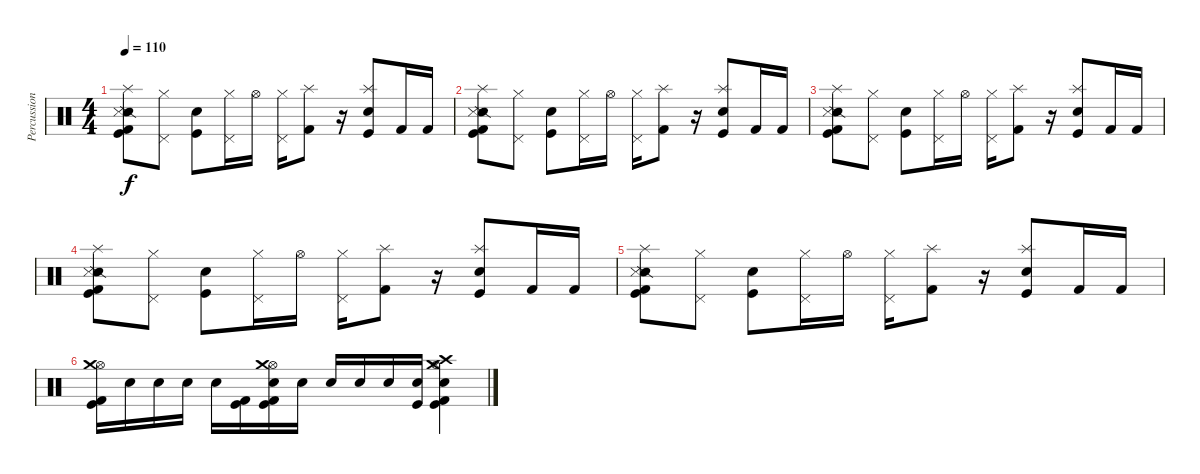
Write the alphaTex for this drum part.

\track ("Percussion" "Percussion") {instrument percussion}
\staff {score}
\articulation defaults
\ts (4 4)
\tempo 110
\clef neutral
\ks c
("Kick (hit)" "Kick (hit) 2" "Snare (side stick) 2" "Metronome (hit)" "Splash (hit)").8{dy f} ("Pedal Hi-Hat (hit)" "Hi-Hat (closed)").8 ("Snare (hit) 2" "Kick (hit)").8 ("Pedal Hi-Hat (hit)" "Hi-Hat (closed)").16 "Hi-Hat (open)".16 ("Pedal Hi-Hat (hit)" "Hi-Hat (closed)").16 ("Kick (hit) 2" "Splash (hit)").8 r.16 ("Snare (hit) 2" "Kick (hit)" "Splash (hit)").8 "Kick (hit) 2".16 "Kick (hit) 2".16 |
("Kick (hit)" "Kick (hit) 2" "Snare (side stick) 2" "Metronome (hit)" "Splash (hit)").8 ("Pedal Hi-Hat (hit)" "Hi-Hat (closed)").8 ("Snare (hit) 2" "Kick (hit)").8 ("Pedal Hi-Hat (hit)" "Hi-Hat (closed)").16 "Hi-Hat (open)".16 ("Pedal Hi-Hat (hit)" "Hi-Hat (closed)").16 ("Kick (hit) 2" "Splash (hit)").8 r.16 ("Snare (hit) 2" "Kick (hit)" "Splash (hit)").8 "Kick (hit) 2".16 "Kick (hit) 2".16 |
("Kick (hit)" "Kick (hit) 2" "Snare (side stick) 2" "Metronome (hit)" "Splash (hit)").8 ("Pedal Hi-Hat (hit)" "Hi-Hat (closed)").8 ("Snare (hit) 2" "Kick (hit)").8 ("Pedal Hi-Hat (hit)" "Hi-Hat (closed)").16 "Hi-Hat (open)".16 ("Pedal Hi-Hat (hit)" "Hi-Hat (closed)").16 ("Kick (hit) 2" "Splash (hit)").8 r.16 ("Snare (hit) 2" "Kick (hit)" "Splash (hit)").8 "Kick (hit) 2".16 "Kick (hit) 2".16 |
("Kick (hit)" "Kick (hit) 2" "Snare (side stick) 2" "Metronome (hit)" "Splash (hit)").8 ("Pedal Hi-Hat (hit)" "Hi-Hat (closed)").8 ("Snare (hit) 2" "Kick (hit)").8 ("Pedal Hi-Hat (hit)" "Hi-Hat (closed)").16 "Hi-Hat (open)".16 ("Pedal Hi-Hat (hit)" "Hi-Hat (closed)").16 ("Kick (hit) 2" "Splash (hit)").8 r.16 ("Snare (hit) 2" "Kick (hit)" "Splash (hit)").8 "Kick (hit) 2".16 "Kick (hit) 2".16 |
("Kick (hit)" "Kick (hit) 2" "Snare (side stick) 2" "Metronome (hit)" "Splash (hit)").8 ("Pedal Hi-Hat (hit)" "Hi-Hat (closed)").8 ("Snare (hit) 2" "Kick (hit)").8 ("Pedal Hi-Hat (hit)" "Hi-Hat (closed)").16 "Hi-Hat (open)".16 ("Pedal Hi-Hat (hit)" "Hi-Hat (closed)").16 ("Kick (hit) 2" "Splash (hit)").8 r.16 ("Snare (hit) 2" "Kick (hit)" "Splash (hit)").8 "Kick (hit) 2".16 "Kick (hit) 2".16 |
("Hi-Hat (open)" "Kick (hit) 2" "Kick (hit)" "Crash medium (hit)").16 "Snare (hit) 2".16 "Electric Snare (hit)".16 "Electric Snare (hit)".16 "Snare (hit) 2".16 ("Kick (hit) 2" "Kick (hit)").16 ("Kick (hit) 2" "Snare (hit) 2" "Kick (hit)" "Hi-Hat (open)" "Crash medium (hit)").16 "Snare (hit) 2".16 "Electric Snare (hit)".16 "Electric Snare (hit)".16 "Snare (hit) 2".16 ("Snare (hit) 2" "Kick (hit)").16 ("Crash high (hit)" "Kick (hit)" "Snare (hit) 2" "Kick (hit) 2" "Hi-Hat (open)" "Crash medium (hit)").4
